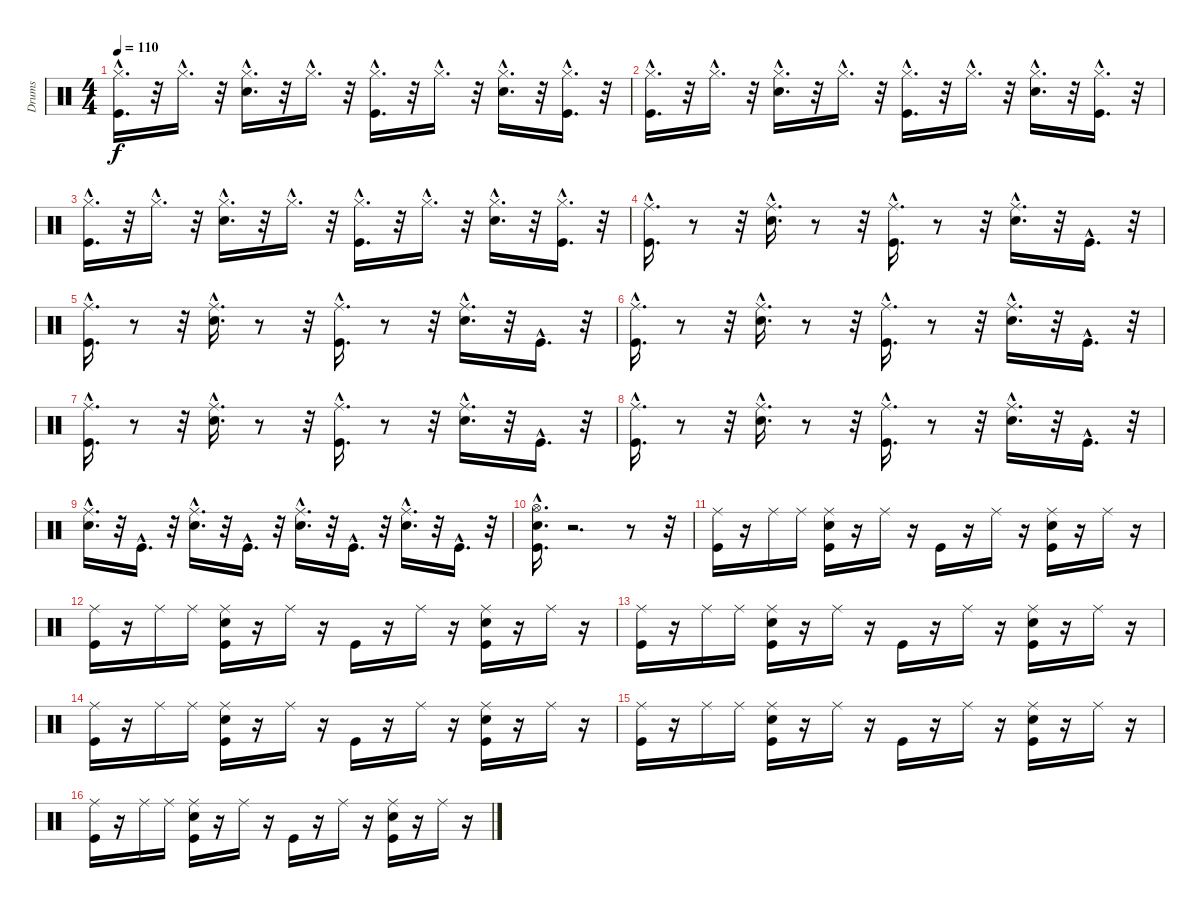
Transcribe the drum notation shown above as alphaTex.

\track ("Drums" "Drums") {instrument percussion}
\staff {score}
\articulation defaults
\ts (4 4)
\tempo 110
\clef neutral
\ks c
("Hi-Hat (closed)"{hac} "Kick (hit)"{hac}).16{d dy f} r.32 "Hi-Hat (closed)"{hac}.16{d} r.32 ("Snare (hit) 2"{hac} "Hi-Hat (closed)"{hac}).16{d} r.32 "Hi-Hat (closed)"{hac}.16{d} r.32 ("Hi-Hat (closed)"{hac} "Kick (hit)"{hac}).16{d} r.32 "Hi-Hat (closed)"{hac}.16{d} r.32 ("Snare (hit) 2"{hac} "Hi-Hat (closed)"{hac}).16{d} r.32 ("Kick (hit)"{hac} "Hi-Hat (closed)"{hac}).16{d} r.32 |
("Hi-Hat (closed)"{hac} "Kick (hit)"{hac}).16{d} r.32 "Hi-Hat (closed)"{hac}.16{d} r.32 ("Snare (hit) 2"{hac} "Hi-Hat (closed)"{hac}).16{d} r.32 "Hi-Hat (closed)"{hac}.16{d} r.32 ("Hi-Hat (closed)"{hac} "Kick (hit)"{hac}).16{d} r.32 "Hi-Hat (closed)"{hac}.16{d} r.32 ("Snare (hit) 2"{hac} "Hi-Hat (closed)"{hac}).16{d} r.32 ("Kick (hit)"{hac} "Hi-Hat (closed)"{hac}).16{d} r.32 |
("Hi-Hat (closed)"{hac} "Kick (hit)"{hac}).16{d} r.32 "Hi-Hat (closed)"{hac}.16{d} r.32 ("Snare (hit) 2"{hac} "Hi-Hat (closed)"{hac}).16{d} r.32 "Hi-Hat (closed)"{hac}.16{d} r.32 ("Hi-Hat (closed)"{hac} "Kick (hit)"{hac}).16{d} r.32 "Hi-Hat (closed)"{hac}.16{d} r.32 ("Snare (hit) 2"{hac} "Hi-Hat (closed)"{hac}).16{d} r.32 ("Kick (hit)"{hac} "Hi-Hat (closed)"{hac}).16{d} r.32 |
("Ride (middle)"{hac} "Kick (hit)"{hac}).16{d} r.8 r.32 ("Ride (middle)"{hac} "Snare (hit) 2"{hac}).16{d} r.8 r.32 ("Ride (middle)"{hac} "Kick (hit)"{hac}).16{d} r.8 r.32 ("Ride (middle)"{hac} "Snare (hit) 2"{hac}).16{d} r.32 "Kick (hit)"{hac}.16{d} r.32 |
("Ride (middle)"{hac} "Kick (hit)"{hac}).16{d} r.8 r.32 ("Ride (middle)"{hac} "Snare (hit) 2"{hac}).16{d} r.8 r.32 ("Ride (middle)"{hac} "Kick (hit)"{hac}).16{d} r.8 r.32 ("Ride (middle)"{hac} "Snare (hit) 2"{hac}).16{d} r.32 "Kick (hit)"{hac}.16{d} r.32 |
("Ride (middle)"{hac} "Kick (hit)"{hac}).16{d} r.8 r.32 ("Ride (middle)"{hac} "Snare (hit) 2"{hac}).16{d} r.8 r.32 ("Ride (middle)"{hac} "Kick (hit)"{hac}).16{d} r.8 r.32 ("Ride (middle)"{hac} "Snare (hit) 2"{hac}).16{d} r.32 "Kick (hit)"{hac}.16{d} r.32 |
("Ride (middle)"{hac} "Kick (hit)"{hac}).16{d} r.8 r.32 ("Ride (middle)"{hac} "Snare (hit) 2"{hac}).16{d} r.8 r.32 ("Ride (middle)"{hac} "Kick (hit)"{hac}).16{d} r.8 r.32 ("Ride (middle)"{hac} "Snare (hit) 2"{hac}).16{d} r.32 "Kick (hit)"{hac}.16{d} r.32 |
("Ride (middle)"{hac} "Kick (hit)"{hac}).16{d} r.8 r.32 ("Ride (middle)"{hac} "Snare (hit) 2"{hac}).16{d} r.8 r.32 ("Ride (middle)"{hac} "Kick (hit)"{hac}).16{d} r.8 r.32 ("Ride (middle)"{hac} "Snare (hit) 2"{hac}).16{d} r.32 "Kick (hit)"{hac}.16{d} r.32 |
("Snare (hit) 2"{hac} "Ride (middle)"{hac}).16{d} r.32 "Kick (hit)"{hac}.16{d} r.32 ("Ride (middle)"{hac} "Snare (hit) 2"{hac}).16{d} r.32 "Kick (hit)"{hac}.16{d} r.32 ("Snare (hit) 2"{hac} "Ride (middle)"{hac}).16{d} r.32 "Kick (hit)"{hac}.16{d} r.32 ("Ride (middle)"{hac} "Snare (hit) 2"{hac}).16{d} r.32 "Kick (hit)"{hac}.16{d} r.32 |
("Hi-Hat (open)"{hac} "Snare (hit) 2"{hac} "Kick (hit)"{hac}).16{d} r.2{d} r.8 r.32 |
("Kick (hit)" "Ride (middle)").16 r.16 "Ride (middle)".16 "Ride (middle)".16 ("Snare (hit) 2" "Ride (middle)" "Kick (hit)").16 r.16 "Ride (middle)".16 r.16 "Kick (hit)".16 r.16 "Ride (middle)".16 r.16 ("Snare (hit) 2" "Ride (middle)" "Kick (hit)").16 r.16 "Ride (middle)".16 r.16 |
("Kick (hit)" "Ride (middle)").16 r.16 "Ride (middle)".16 "Ride (middle)".16 ("Snare (hit) 2" "Ride (middle)" "Kick (hit)").16 r.16 "Ride (middle)".16 r.16 "Kick (hit)".16 r.16 "Ride (middle)".16 r.16 ("Snare (hit) 2" "Ride (middle)" "Kick (hit)").16 r.16 "Ride (middle)".16 r.16 |
("Kick (hit)" "Ride (middle)").16 r.16 "Ride (middle)".16 "Ride (middle)".16 ("Snare (hit) 2" "Ride (middle)" "Kick (hit)").16 r.16 "Ride (middle)".16 r.16 "Kick (hit)".16 r.16 "Ride (middle)".16 r.16 ("Snare (hit) 2" "Ride (middle)" "Kick (hit)").16 r.16 "Ride (middle)".16 r.16 |
("Kick (hit)" "Ride (middle)").16 r.16 "Ride (middle)".16 "Ride (middle)".16 ("Snare (hit) 2" "Ride (middle)" "Kick (hit)").16 r.16 "Ride (middle)".16 r.16 "Kick (hit)".16 r.16 "Ride (middle)".16 r.16 ("Snare (hit) 2" "Ride (middle)" "Kick (hit)").16 r.16 "Ride (middle)".16 r.16 |
("Kick (hit)" "Ride (middle)").16 r.16 "Ride (middle)".16 "Ride (middle)".16 ("Snare (hit) 2" "Ride (middle)" "Kick (hit)").16 r.16 "Ride (middle)".16 r.16 "Kick (hit)".16 r.16 "Ride (middle)".16 r.16 ("Snare (hit) 2" "Ride (middle)" "Kick (hit)").16 r.16 "Ride (middle)".16 r.16 |
("Kick (hit)" "Ride (middle)").16 r.16 "Ride (middle)".16 "Ride (middle)".16 ("Snare (hit) 2" "Ride (middle)" "Kick (hit)").16 r.16 "Ride (middle)".16 r.16 "Kick (hit)".16 r.16 "Ride (middle)".16 r.16 ("Snare (hit) 2" "Ride (middle)" "Kick (hit)").16 r.16 "Ride (middle)".16 r.16
